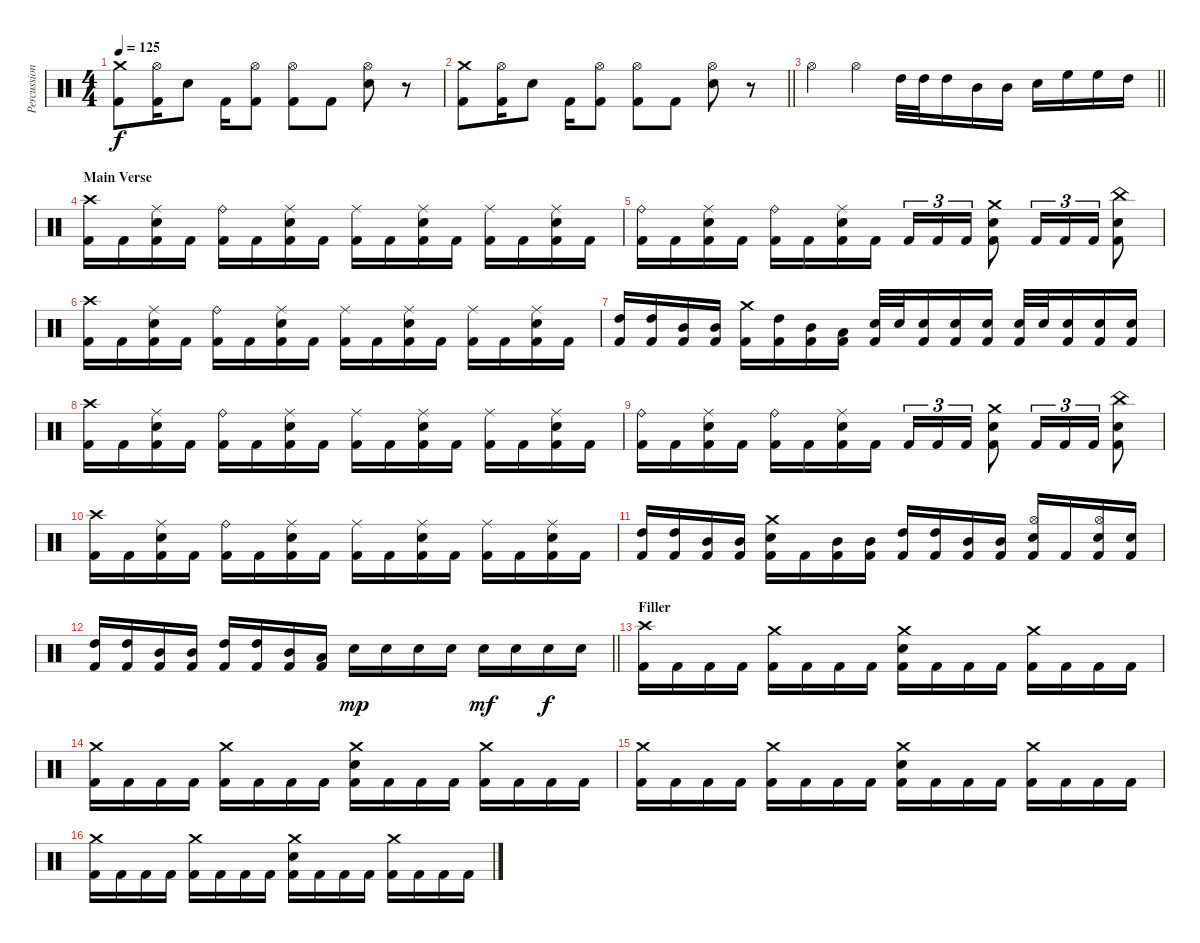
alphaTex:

\track ("Percussion" "Percussion") {instrument percussion}
\staff {score}
\articulation defaults
\ts (4 4)
\tempo 125
\clef neutral
\ks c
("Crash medium (hit)" "Kick (hit) 2").8{dy f} ("Hi-Hat (open)" "Kick (hit) 2").16 "Snare (hit) 2".8 "Kick (hit) 2".16 ("Hi-Hat (open)" "Kick (hit) 2").8 ("Hi-Hat (open)" "Kick (hit) 2").8 "Kick (hit) 2".8 ("Hi-Hat (open)" "Snare (hit) 2").8 r.8 |
\barLineRight lightlight
("Crash medium (hit)" "Kick (hit) 2").8 ("Hi-Hat (open)" "Kick (hit) 2").16 "Snare (hit) 2".8 "Kick (hit) 2".16 ("Hi-Hat (open)" "Kick (hit) 2").8 ("Hi-Hat (open)" "Kick (hit) 2").8 "Kick (hit) 2".8 ("Hi-Hat (open)" "Snare (hit) 2").8 r.8 |
\barLineRight lightlight "Hi-Hat (open)".4 "Hi-Hat (open)".4 "High Tom (hit)".32 "High Tom (hit)".32 "High Tom (hit)".16 "Mid Tom (hit)".16 "Mid Tom (hit)".16 "Snare (hit) 2".16 "High Floor Tom (hit)".16 "High Floor Tom (hit)".16 "High Tom (hit)".16
|
\section ("" "Main Verse")
("Crash high (hit)" "Kick (hit) 2").16 "Kick (hit) 2".16 ("Ride (middle)" "Snare (hit) 2" "Kick (hit) 2").16 "Kick (hit) 2".16 ("Ride (bell)" "Kick (hit) 2").16 "Kick (hit) 2".16 ("Ride (middle)" "Snare (hit) 2" "Kick (hit) 2").16 "Kick (hit) 2".16 ("Ride (middle)" "Kick (hit) 2").16 "Kick (hit) 2".16 ("Ride (middle)" "Snare (hit) 2" "Kick (hit) 2").16 "Kick (hit) 2".16 ("Ride (middle)" "Kick (hit) 2").16 "Kick (hit) 2".16 ("Ride (middle)" "Snare (hit) 2" "Kick (hit) 2").16 "Kick (hit) 2".16 |
("Ride (bell)" "Kick (hit) 2").16 "Kick (hit) 2".16 ("Ride (middle)" "Snare (hit) 2" "Kick (hit) 2").16 "Kick (hit) 2".16 ("Ride (bell)" "Kick (hit) 2").16 "Kick (hit) 2".16 ("Ride (middle)" "Snare (hit) 2" "Kick (hit) 2").16 "Kick (hit) 2".16 "Kick (hit) 2".16{tu (3 2)} "Kick (hit) 2".16{tu (3 2)} "Kick (hit) 2".16{tu (3 2)} ("Crash medium (hit)" "Snare (hit) 2" "Kick (hit) 2").8 "Kick (hit) 2".16{tu (3 2)} "Kick (hit) 2".16{tu (3 2)} "Kick (hit) 2".16{tu (3 2)} ("China (hit)" "Snare (hit) 2" "Kick (hit) 2").8 |
("Crash high (hit)" "Kick (hit) 2").16 "Kick (hit) 2".16 ("Ride (middle)" "Snare (hit) 2" "Kick (hit) 2").16 "Kick (hit) 2".16 ("Ride (bell)" "Kick (hit) 2").16 "Kick (hit) 2".16 ("Ride (middle)" "Snare (hit) 2" "Kick (hit) 2").16 "Kick (hit) 2".16 ("Ride (middle)" "Kick (hit) 2").16 "Kick (hit) 2".16 ("Ride (middle)" "Snare (hit) 2" "Kick (hit) 2").16 "Kick (hit) 2".16 ("Ride (middle)" "Kick (hit) 2").16 "Kick (hit) 2".16 ("Ride (middle)" "Snare (hit) 2" "Kick (hit) 2").16 "Kick (hit) 2".16 |
("High Tom (hit)" "Kick (hit) 2").16 ("High Tom (hit)" "Kick (hit) 2").16 ("Mid Tom (hit)" "Kick (hit) 2").16 ("Mid Tom (hit)" "Kick (hit) 2").16 ("Crash medium (hit)" "Kick (hit) 2").16 ("High Tom (hit)" "Kick (hit) 2").16 ("Mid Tom (hit)" "Kick (hit) 2").16 ("Low Tom (hit)" "Kick (hit) 2").16 ("Snare (hit) 2" "Kick (hit) 2").32 "Snare (hit) 2".32 ("Snare (hit) 2" "Kick (hit) 2").16 ("Snare (hit) 2" "Kick (hit) 2").16 ("Snare (hit) 2" "Kick (hit) 2").16 ("Snare (hit) 2" "Kick (hit) 2").32 "Snare (hit) 2".32 ("Snare (hit) 2" "Kick (hit) 2").16 ("Snare (hit) 2" "Kick (hit) 2").16 ("Snare (hit) 2" "Kick (hit) 2").16 |
("Crash high (hit)" "Kick (hit) 2").16 "Kick (hit) 2".16 ("Ride (middle)" "Snare (hit) 2" "Kick (hit) 2").16 "Kick (hit) 2".16 ("Ride (bell)" "Kick (hit) 2").16 "Kick (hit) 2".16 ("Ride (middle)" "Snare (hit) 2" "Kick (hit) 2").16 "Kick (hit) 2".16 ("Ride (middle)" "Kick (hit) 2").16 "Kick (hit) 2".16 ("Ride (middle)" "Snare (hit) 2" "Kick (hit) 2").16 "Kick (hit) 2".16 ("Ride (middle)" "Kick (hit) 2").16 "Kick (hit) 2".16 ("Ride (middle)" "Snare (hit) 2" "Kick (hit) 2").16 "Kick (hit) 2".16 |
("Ride (bell)" "Kick (hit) 2").16 "Kick (hit) 2".16 ("Ride (middle)" "Snare (hit) 2" "Kick (hit) 2").16 "Kick (hit) 2".16 ("Ride (bell)" "Kick (hit) 2").16 "Kick (hit) 2".16 ("Ride (middle)" "Snare (hit) 2" "Kick (hit) 2").16 "Kick (hit) 2".16 "Kick (hit) 2".16{tu (3 2)} "Kick (hit) 2".16{tu (3 2)} "Kick (hit) 2".16{tu (3 2)} ("Crash medium (hit)" "Snare (hit) 2" "Kick (hit) 2").8 "Kick (hit) 2".16{tu (3 2)} "Kick (hit) 2".16{tu (3 2)} "Kick (hit) 2".16{tu (3 2)} ("China (hit)" "Snare (hit) 2" "Kick (hit) 2").8 |
("Crash high (hit)" "Kick (hit) 2").16 "Kick (hit) 2".16 ("Ride (middle)" "Snare (hit) 2" "Kick (hit) 2").16 "Kick (hit) 2".16 ("Ride (bell)" "Kick (hit) 2").16 "Kick (hit) 2".16 ("Ride (middle)" "Snare (hit) 2" "Kick (hit) 2").16 "Kick (hit) 2".16 ("Ride (middle)" "Kick (hit) 2").16 "Kick (hit) 2".16 ("Ride (middle)" "Snare (hit) 2" "Kick (hit) 2").16 "Kick (hit) 2".16 ("Ride (middle)" "Kick (hit) 2").16 "Kick (hit) 2".16 ("Ride (middle)" "Snare (hit) 2" "Kick (hit) 2").16 "Kick (hit) 2".16 |
("High Tom (hit)" "Kick (hit) 2").16 ("High Tom (hit)" "Kick (hit) 2").16 ("Mid Tom (hit)" "Kick (hit) 2").16 ("Mid Tom (hit)" "Kick (hit) 2").16 ("Crash medium (hit)" "Snare (hit) 2" "Kick (hit) 2").16 "Kick (hit) 2".16 ("Mid Tom (hit)" "Kick (hit) 2").16 ("Mid Tom (hit)" "Kick (hit) 2").16 ("High Tom (hit)" "Kick (hit) 2").16 ("High Tom (hit)" "Kick (hit) 2").16 ("Mid Tom (hit)" "Kick (hit) 2").16 ("Mid Tom (hit)" "Kick (hit) 2").16 ("Hi-Hat (open)" "Snare (hit) 2" "Kick (hit) 2").16 "Kick (hit) 2".16 ("Hi-Hat (open)" "Snare (hit) 2" "Kick (hit) 2").16 ("Snare (hit) 2" "Kick (hit) 2").16 |
\barLineRight lightlight
("High Tom (hit)" "Kick (hit) 2").16 ("High Tom (hit)" "Kick (hit) 2").16 ("Mid Tom (hit)" "Kick (hit) 2").16 ("Mid Tom (hit)" "Kick (hit) 2").16 ("High Tom (hit)" "Kick (hit) 2").16 ("High Tom (hit)" "Kick (hit) 2").16 ("Mid Tom (hit)" "Kick (hit) 2").16 ("Low Tom (hit)" "Kick (hit) 2").16 "Snare (hit) 2".16{dy mp} "Snare (hit) 2".16 "Snare (hit) 2".16 "Snare (hit) 2".16 "Snare (hit) 2".16{dy mf} "Snare (hit) 2".16 "Snare (hit) 2".16{dy f} "Snare (hit) 2".16 |
\section ("" "Filler")
("Crash high (hit)" "Kick (hit) 2").16 "Kick (hit) 2".16 "Kick (hit) 2".16 "Kick (hit) 2".16 ("Crash medium (hit)" "Kick (hit) 2").16 "Kick (hit) 2".16 "Kick (hit) 2".16 "Kick (hit) 2".16 ("Crash medium (hit)" "Snare (hit) 2" "Kick (hit) 2").16 "Kick (hit) 2".16 "Kick (hit) 2".16 "Kick (hit) 2".16 ("Crash medium (hit)" "Kick (hit) 2").16 "Kick (hit) 2".16 "Kick (hit) 2".16 "Kick (hit) 2".16 |
("Crash medium (hit)" "Kick (hit) 2").16 "Kick (hit) 2".16 "Kick (hit) 2".16 "Kick (hit) 2".16 ("Crash medium (hit)" "Kick (hit) 2").16 "Kick (hit) 2".16 "Kick (hit) 2".16 "Kick (hit) 2".16 ("Crash medium (hit)" "Snare (hit) 2" "Kick (hit) 2").16 "Kick (hit) 2".16 "Kick (hit) 2".16 "Kick (hit) 2".16 ("Crash medium (hit)" "Kick (hit) 2").16 "Kick (hit) 2".16 "Kick (hit) 2".16 "Kick (hit) 2".16 |
("Crash medium (hit)" "Kick (hit) 2").16 "Kick (hit) 2".16 "Kick (hit) 2".16 "Kick (hit) 2".16 ("Crash medium (hit)" "Kick (hit) 2").16 "Kick (hit) 2".16 "Kick (hit) 2".16 "Kick (hit) 2".16 ("Crash medium (hit)" "Snare (hit) 2" "Kick (hit) 2").16 "Kick (hit) 2".16 "Kick (hit) 2".16 "Kick (hit) 2".16 ("Crash medium (hit)" "Kick (hit) 2").16 "Kick (hit) 2".16 "Kick (hit) 2".16 "Kick (hit) 2".16 |
("Crash medium (hit)" "Kick (hit) 2").16 "Kick (hit) 2".16 "Kick (hit) 2".16 "Kick (hit) 2".16 ("Crash medium (hit)" "Kick (hit) 2").16 "Kick (hit) 2".16 "Kick (hit) 2".16 "Kick (hit) 2".16 ("Crash medium (hit)" "Snare (hit) 2" "Kick (hit) 2").16 "Kick (hit) 2".16 "Kick (hit) 2".16 "Kick (hit) 2".16 ("Crash medium (hit)" "Kick (hit) 2").16 "Kick (hit) 2".16 "Kick (hit) 2".16 "Kick (hit) 2".16
